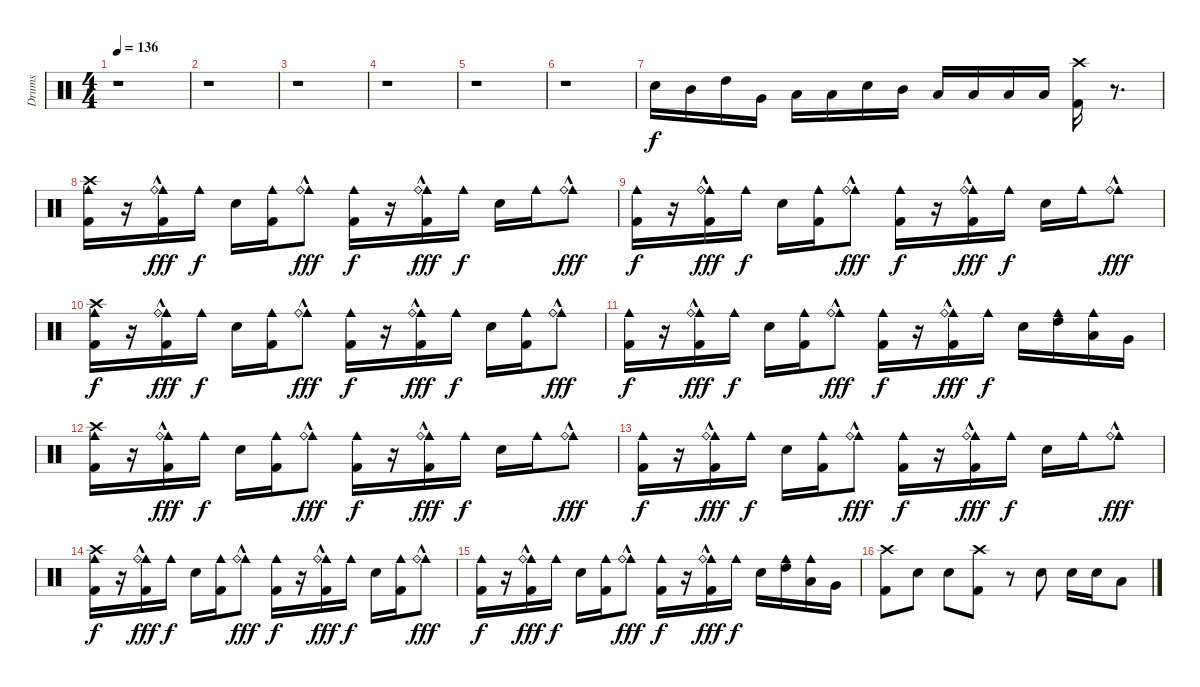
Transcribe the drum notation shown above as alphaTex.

\track ("Drums" "Drums") {instrument percussion}
\staff {score}
\articulation defaults
\ts (4 4)
\tempo 136
\clef neutral
\ks c
r.1{dy f} |
r.1 |
r.1 |
r.1 |
r.1 |
r.1 |
"Metronome (bell)".16{volume 14} "Mid Tom (hit)".16 "High Tom (hit)".16 "Very Low Tom (hit)".16 "Low Floor Tom (hit)".16 "Low Floor Tom (hit)".16 "Metronome (bell)".16 "Mid Tom (hit)".16 "Low Floor Tom (hit)".16 "Low Floor Tom (hit)".16 "Low Tom (hit)".16 "Low Floor Tom (hit)".16 ("Kick (hit) 2" "Crash high (hit)").16 r.8{d} |
("Cowbell medium (hit)" "Kick (hit) 2" "Crash high (hit)").16 r.16 ("Cowbell medium (hit)" "Kick (hit) 2" "Ride (bell)"{hac}).16{dy fff} "Cowbell medium (hit)".16{dy f} "Metronome (bell)".16 ("Cowbell medium (hit)" "Kick (hit) 2").16 ("Cowbell medium (hit)" "Ride (bell)"{hac}).8{dy fff} ("Kick (hit) 2" "Cowbell medium (hit)").16{dy f} r.16 ("Cowbell medium (hit)" "Kick (hit) 2" "Ride (bell)"{hac}).16{dy fff} "Cowbell medium (hit)".16{dy f} "Metronome (bell)".16 "Cowbell medium (hit)".16 ("Cowbell medium (hit)" "Ride (bell)"{hac}).8{dy fff} |
("Kick (hit) 2" "Cowbell medium (hit)").16{dy f} r.16 ("Kick (hit) 2" "Cowbell medium (hit)" "Ride (bell)"{hac}).16{dy fff} "Cowbell medium (hit)".16{dy f} "Metronome (bell)".16 ("Cowbell medium (hit)" "Kick (hit) 2").16 ("Cowbell medium (hit)" "Ride (bell)"{hac}).8{dy fff} ("Kick (hit) 2" "Cowbell medium (hit)").16{dy f} r.16 ("Kick (hit) 2" "Cowbell medium (hit)" "Ride (bell)"{hac}).16{dy fff} "Cowbell medium (hit)".16{dy f} "Metronome (bell)".16 "Cowbell medium (hit)".16 ("Cowbell medium (hit)" "Ride (bell)"{hac}).8{dy fff} |
("Cowbell medium (hit)" "Kick (hit) 2" "Crash high (hit)").16{dy f} r.16 ("Cowbell medium (hit)" "Kick (hit) 2" "Ride (bell)"{hac}).16{dy fff} "Cowbell medium (hit)".16{dy f} "Metronome (bell)".16 ("Cowbell medium (hit)" "Kick (hit) 2").16 ("Cowbell medium (hit)" "Ride (bell)"{hac}).8{dy fff} ("Kick (hit) 2" "Cowbell medium (hit)").16{dy f} r.16 ("Cowbell medium (hit)" "Kick (hit) 2" "Ride (bell)"{hac}).16{dy fff} "Cowbell medium (hit)".16{dy f} "Metronome (bell)".16 ("Cowbell medium (hit)" "Kick (hit) 2").16 ("Cowbell medium (hit)" "Ride (bell)"{hac}).8{dy fff} |
("Kick (hit) 2" "Cowbell medium (hit)").16{dy f} r.16 ("Kick (hit) 2" "Cowbell medium (hit)" "Ride (bell)"{hac}).16{dy fff} "Cowbell medium (hit)".16{dy f} "Metronome (bell)".16 ("Cowbell medium (hit)" "Kick (hit) 2").16 ("Cowbell medium (hit)" "Ride (bell)"{hac}).8{dy fff} ("Kick (hit) 2" "Cowbell medium (hit)").16{dy f} r.16 ("Kick (hit) 2" "Cowbell medium (hit)" "Ride (bell)"{hac}).16{dy fff} "Cowbell medium (hit)".16{dy f} "Metronome (bell)".16 ("Cowbell medium (hit)" "High Tom (hit)").16 ("Cowbell medium (hit)" "Low Tom (hit)").16 "Very Low Tom (hit)".16 |
("Cowbell medium (hit)" "Kick (hit) 2" "Crash high (hit)").16 r.16 ("Cowbell medium (hit)" "Kick (hit) 2" "Ride (bell)"{hac}).16{dy fff} "Cowbell medium (hit)".16{dy f} "Metronome (bell)".16 ("Cowbell medium (hit)" "Kick (hit) 2").16 ("Cowbell medium (hit)" "Ride (bell)"{hac}).8{dy fff} ("Kick (hit) 2" "Cowbell medium (hit)").16{dy f} r.16 ("Cowbell medium (hit)" "Kick (hit) 2" "Ride (bell)"{hac}).16{dy fff} "Cowbell medium (hit)".16{dy f} "Metronome (bell)".16 "Cowbell medium (hit)".16 ("Cowbell medium (hit)" "Ride (bell)"{hac}).8{dy fff} |
("Kick (hit) 2" "Cowbell medium (hit)").16{dy f} r.16 ("Kick (hit) 2" "Cowbell medium (hit)" "Ride (bell)"{hac}).16{dy fff} "Cowbell medium (hit)".16{dy f} "Metronome (bell)".16 ("Cowbell medium (hit)" "Kick (hit) 2").16 ("Cowbell medium (hit)" "Ride (bell)"{hac}).8{dy fff} ("Kick (hit) 2" "Cowbell medium (hit)").16{dy f} r.16 ("Kick (hit) 2" "Cowbell medium (hit)" "Ride (bell)"{hac}).16{dy fff} "Cowbell medium (hit)".16{dy f} "Metronome (bell)".16 "Cowbell medium (hit)".16 ("Cowbell medium (hit)" "Ride (bell)"{hac}).8{dy fff} |
("Cowbell medium (hit)" "Kick (hit) 2" "Crash high (hit)").16{dy f} r.16 ("Cowbell medium (hit)" "Kick (hit) 2" "Ride (bell)"{hac}).16{dy fff} "Cowbell medium (hit)".16{dy f} "Metronome (bell)".16 ("Cowbell medium (hit)" "Kick (hit) 2").16 ("Cowbell medium (hit)" "Ride (bell)"{hac}).8{dy fff} ("Kick (hit) 2" "Cowbell medium (hit)").16{dy f} r.16 ("Cowbell medium (hit)" "Kick (hit) 2" "Ride (bell)"{hac}).16{dy fff} "Cowbell medium (hit)".16{dy f} "Metronome (bell)".16 ("Cowbell medium (hit)" "Kick (hit) 2").16 ("Cowbell medium (hit)" "Ride (bell)"{hac}).8{dy fff} |
("Kick (hit) 2" "Cowbell medium (hit)").16{dy f} r.16 ("Kick (hit) 2" "Cowbell medium (hit)" "Ride (bell)"{hac}).16{dy fff} "Cowbell medium (hit)".16{dy f} "Metronome (bell)".16 ("Cowbell medium (hit)" "Kick (hit) 2").16 ("Cowbell medium (hit)" "Ride (bell)"{hac}).8{dy fff} ("Kick (hit) 2" "Cowbell medium (hit)").16{dy f} r.16 ("Kick (hit) 2" "Cowbell medium (hit)" "Ride (bell)"{hac}).16{dy fff} "Cowbell medium (hit)".16{dy f} "Metronome (bell)".16 ("Cowbell medium (hit)" "High Tom (hit)").16 ("Cowbell medium (hit)" "Low Tom (hit)").16 "Very Low Tom (hit)".16 |
("Kick (hit) 2" "Crash high (hit)").8 "Metronome (bell)".8 "Metronome (bell)".8 ("Kick (hit) 2" "Crash high (hit)").8 r.8 "Metronome (bell)".8 "Metronome (bell)".16 "Metronome (bell)".16 "Low Tom (hit)".8
